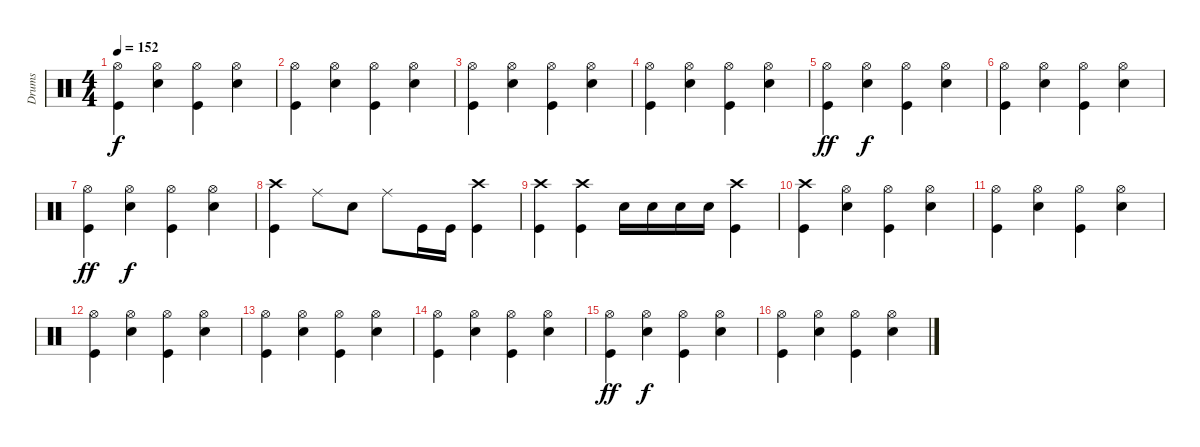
\track ("Drums" "Drums") {instrument percussion}
\staff {score}
\articulation defaults
\ts (4 4)
\tempo 152
\clef neutral
\ks c
("Hi-Hat (open)" "Kick (hit)").4{dy f} ("Hi-Hat (open)" "Snare (hit) 2").4 ("Hi-Hat (open)" "Kick (hit)").4 ("Hi-Hat (open)" "Snare (hit) 2").4 |
("Hi-Hat (open)" "Kick (hit)").4 ("Hi-Hat (open)" "Snare (hit) 2").4 ("Hi-Hat (open)" "Kick (hit)").4 ("Hi-Hat (open)" "Snare (hit) 2").4 |
("Hi-Hat (open)" "Kick (hit)").4 ("Hi-Hat (open)" "Snare (hit) 2").4 ("Hi-Hat (open)" "Kick (hit)").4 ("Hi-Hat (open)" "Snare (hit) 2").4 |
("Hi-Hat (open)" "Kick (hit)").4 ("Hi-Hat (open)" "Snare (hit) 2").4 ("Hi-Hat (open)" "Kick (hit)").4 ("Hi-Hat (open)" "Snare (hit) 2").4 |
("Hi-Hat (open)" "Kick (hit)").4{dy ff} ("Hi-Hat (open)" "Snare (hit) 2").4{dy f} ("Hi-Hat (open)" "Kick (hit)").4 ("Hi-Hat (open)" "Snare (hit) 2").4 |
("Hi-Hat (open)" "Kick (hit)").4 ("Hi-Hat (open)" "Snare (hit) 2").4 ("Hi-Hat (open)" "Kick (hit)").4 ("Hi-Hat (open)" "Snare (hit) 2").4 |
("Hi-Hat (open)" "Kick (hit)").4{dy ff} ("Hi-Hat (open)" "Snare (hit) 2").4{dy f} ("Hi-Hat (open)" "Kick (hit)").4 ("Hi-Hat (open)" "Snare (hit) 2").4 |
("Crash high (hit)" "Kick (hit)").4 "Ride (middle)".8 "Snare (hit) 2".8 "Ride (middle)".8 "Kick (hit)".16 "Kick (hit)".16 ("Crash high (hit)" "Kick (hit)").4 |
("Crash high (hit)" "Kick (hit)").4 ("Crash high (hit)" "Kick (hit)").4 "Snare (hit) 2".16 "Snare (hit) 2".16 "Snare (hit) 2".16 "Snare (hit) 2".16 ("Crash high (hit)" "Kick (hit)").4 |
("Crash high (hit)" "Kick (hit)").4 ("Hi-Hat (open)" "Snare (hit) 2").4 ("Hi-Hat (open)" "Kick (hit)").4 ("Hi-Hat (open)" "Snare (hit) 2").4 |
("Hi-Hat (open)" "Kick (hit)").4 ("Hi-Hat (open)" "Snare (hit) 2").4 ("Hi-Hat (open)" "Kick (hit)").4 ("Hi-Hat (open)" "Snare (hit) 2").4 |
("Hi-Hat (open)" "Kick (hit)").4 ("Hi-Hat (open)" "Snare (hit) 2").4 ("Hi-Hat (open)" "Kick (hit)").4 ("Hi-Hat (open)" "Snare (hit) 2").4 |
("Hi-Hat (open)" "Kick (hit)").4 ("Hi-Hat (open)" "Snare (hit) 2").4 ("Hi-Hat (open)" "Kick (hit)").4 ("Hi-Hat (open)" "Snare (hit) 2").4 |
("Hi-Hat (open)" "Kick (hit)").4 ("Hi-Hat (open)" "Snare (hit) 2").4 ("Hi-Hat (open)" "Kick (hit)").4 ("Hi-Hat (open)" "Snare (hit) 2").4 |
("Hi-Hat (open)" "Kick (hit)").4{dy ff} ("Hi-Hat (open)" "Snare (hit) 2").4{dy f} ("Hi-Hat (open)" "Kick (hit)").4 ("Hi-Hat (open)" "Snare (hit) 2").4 |
("Hi-Hat (open)" "Kick (hit)").4 ("Hi-Hat (open)" "Snare (hit) 2").4 ("Hi-Hat (open)" "Kick (hit)").4 ("Hi-Hat (open)" "Snare (hit) 2").4
